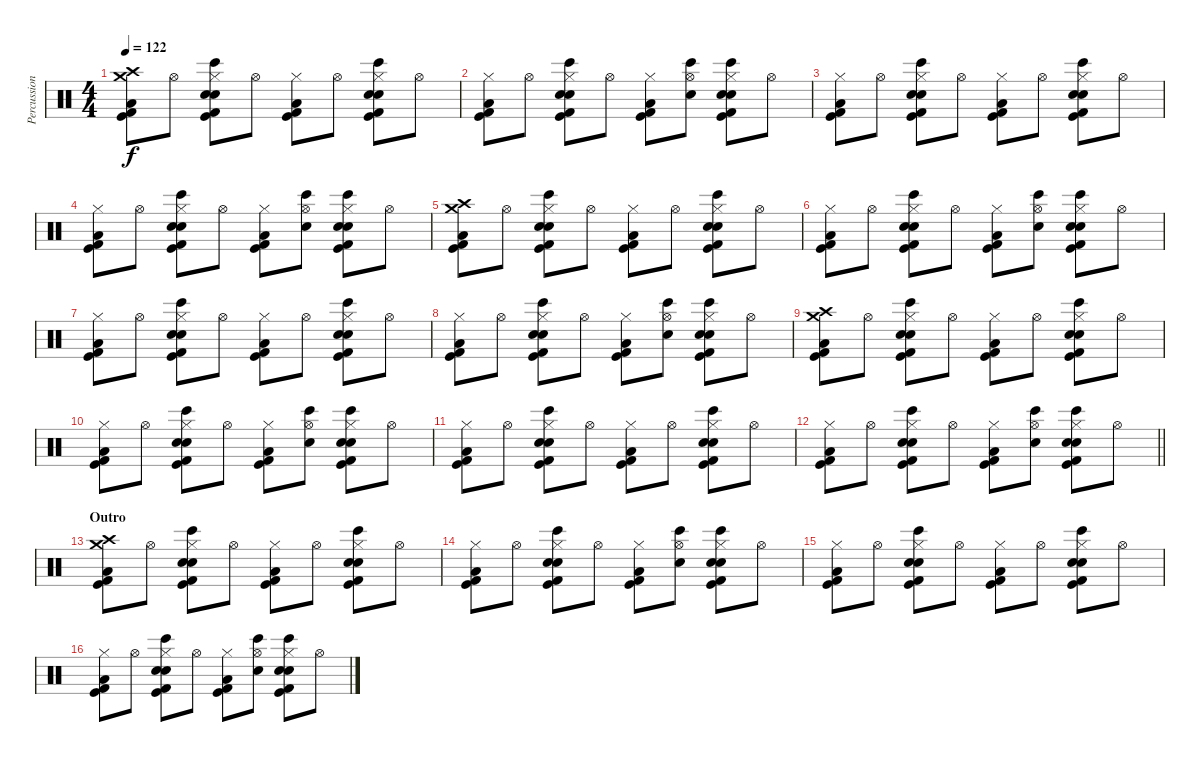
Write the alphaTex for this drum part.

\track ("Percussion" "Percussion") {instrument percussion}
\staff {score}
\articulation defaults
\ts (4 4)
\tempo 122
\clef neutral
\ks c
("Crash medium (hit)" "Crash high (hit)" "Low Floor Tom (hit)" "Kick (hit)" "Kick (hit) 2").8{dy f} "Hi-Hat (open)".8 ("Hand Clap (hit)" "Bongo High (hit)" "Hi-Hat (closed)" "Electric Snare (hit)" "Kick (hit)" "Kick (hit) 2").8 "Hi-Hat (open)".8 ("Hi-Hat (closed)" "Low Floor Tom (hit)" "Kick (hit)" "Kick (hit) 2").8 "Hi-Hat (open)".8 ("Hand Clap (hit)" "Bongo High (hit)" "Hi-Hat (closed)" "Electric Snare (hit)" "Kick (hit)" "Kick (hit) 2").8 "Hi-Hat (open)".8 |
("Hi-Hat (closed)" "Low Floor Tom (hit)" "Kick (hit)" "Kick (hit) 2").8 "Hi-Hat (open)".8 ("Hand Clap (hit)" "Bongo High (hit)" "Hi-Hat (closed)" "Electric Snare (hit)" "Kick (hit)" "Kick (hit) 2").8 "Hi-Hat (open)".8 ("Hi-Hat (closed)" "Low Floor Tom (hit)" "Kick (hit)" "Kick (hit) 2").8 ("Hand Clap (hit)" "Bongo High (hit)" "Hi-Hat (open)").8 ("Hand Clap (hit)" "Bongo High (hit)" "Hi-Hat (closed)" "Electric Snare (hit)" "Kick (hit)" "Kick (hit) 2").8 "Hi-Hat (open)".8 |
("Hi-Hat (closed)" "Low Floor Tom (hit)" "Kick (hit)" "Kick (hit) 2").8 "Hi-Hat (open)".8 ("Hand Clap (hit)" "Bongo High (hit)" "Hi-Hat (closed)" "Electric Snare (hit)" "Kick (hit)" "Kick (hit) 2").8 "Hi-Hat (open)".8 ("Hi-Hat (closed)" "Low Floor Tom (hit)" "Kick (hit)" "Kick (hit) 2").8 "Hi-Hat (open)".8 ("Hand Clap (hit)" "Bongo High (hit)" "Hi-Hat (closed)" "Electric Snare (hit)" "Kick (hit)" "Kick (hit) 2").8 "Hi-Hat (open)".8 |
("Hi-Hat (closed)" "Low Floor Tom (hit)" "Kick (hit)" "Kick (hit) 2").8 "Hi-Hat (open)".8 ("Hand Clap (hit)" "Bongo High (hit)" "Hi-Hat (closed)" "Electric Snare (hit)" "Kick (hit)" "Kick (hit) 2").8 "Hi-Hat (open)".8 ("Hi-Hat (closed)" "Low Floor Tom (hit)" "Kick (hit)" "Kick (hit) 2").8 ("Hand Clap (hit)" "Bongo High (hit)" "Hi-Hat (open)").8 ("Hand Clap (hit)" "Bongo High (hit)" "Hi-Hat (closed)" "Electric Snare (hit)" "Kick (hit)" "Kick (hit) 2").8 "Hi-Hat (open)".8 |
("Crash medium (hit)" "Crash high (hit)" "Low Floor Tom (hit)" "Kick (hit)" "Kick (hit) 2").8 "Hi-Hat (open)".8 ("Hand Clap (hit)" "Bongo High (hit)" "Hi-Hat (closed)" "Electric Snare (hit)" "Kick (hit)" "Kick (hit) 2").8 "Hi-Hat (open)".8 ("Hi-Hat (closed)" "Low Floor Tom (hit)" "Kick (hit)" "Kick (hit) 2").8 "Hi-Hat (open)".8 ("Hand Clap (hit)" "Bongo High (hit)" "Hi-Hat (closed)" "Electric Snare (hit)" "Kick (hit)" "Kick (hit) 2").8 "Hi-Hat (open)".8 |
("Hi-Hat (closed)" "Low Floor Tom (hit)" "Kick (hit)" "Kick (hit) 2").8 "Hi-Hat (open)".8 ("Hand Clap (hit)" "Bongo High (hit)" "Hi-Hat (closed)" "Electric Snare (hit)" "Kick (hit)" "Kick (hit) 2").8 "Hi-Hat (open)".8 ("Hi-Hat (closed)" "Low Floor Tom (hit)" "Kick (hit)" "Kick (hit) 2").8 ("Hand Clap (hit)" "Bongo High (hit)" "Hi-Hat (open)").8 ("Hand Clap (hit)" "Bongo High (hit)" "Hi-Hat (closed)" "Electric Snare (hit)" "Kick (hit)" "Kick (hit) 2").8 "Hi-Hat (open)".8 |
("Hi-Hat (closed)" "Low Floor Tom (hit)" "Kick (hit)" "Kick (hit) 2").8 "Hi-Hat (open)".8 ("Hand Clap (hit)" "Bongo High (hit)" "Hi-Hat (closed)" "Electric Snare (hit)" "Kick (hit)" "Kick (hit) 2").8 "Hi-Hat (open)".8 ("Hi-Hat (closed)" "Low Floor Tom (hit)" "Kick (hit)" "Kick (hit) 2").8 "Hi-Hat (open)".8 ("Hand Clap (hit)" "Bongo High (hit)" "Hi-Hat (closed)" "Electric Snare (hit)" "Kick (hit)" "Kick (hit) 2").8 "Hi-Hat (open)".8 |
("Hi-Hat (closed)" "Low Floor Tom (hit)" "Kick (hit)" "Kick (hit) 2").8 "Hi-Hat (open)".8 ("Hand Clap (hit)" "Bongo High (hit)" "Hi-Hat (closed)" "Electric Snare (hit)" "Kick (hit)" "Kick (hit) 2").8 "Hi-Hat (open)".8 ("Hi-Hat (closed)" "Low Floor Tom (hit)" "Kick (hit)" "Kick (hit) 2").8 ("Hand Clap (hit)" "Bongo High (hit)" "Hi-Hat (open)").8 ("Hand Clap (hit)" "Bongo High (hit)" "Hi-Hat (closed)" "Electric Snare (hit)" "Kick (hit)" "Kick (hit) 2").8 "Hi-Hat (open)".8 |
("Crash medium (hit)" "Crash high (hit)" "Low Floor Tom (hit)" "Kick (hit)" "Kick (hit) 2").8 "Hi-Hat (open)".8 ("Hand Clap (hit)" "Bongo High (hit)" "Hi-Hat (closed)" "Electric Snare (hit)" "Kick (hit)" "Kick (hit) 2").8 "Hi-Hat (open)".8 ("Hi-Hat (closed)" "Low Floor Tom (hit)" "Kick (hit)" "Kick (hit) 2").8 "Hi-Hat (open)".8 ("Hand Clap (hit)" "Bongo High (hit)" "Hi-Hat (closed)" "Electric Snare (hit)" "Kick (hit)" "Kick (hit) 2").8 "Hi-Hat (open)".8 |
("Hi-Hat (closed)" "Low Floor Tom (hit)" "Kick (hit)" "Kick (hit) 2").8 "Hi-Hat (open)".8 ("Hand Clap (hit)" "Bongo High (hit)" "Hi-Hat (closed)" "Electric Snare (hit)" "Kick (hit)" "Kick (hit) 2").8 "Hi-Hat (open)".8 ("Hi-Hat (closed)" "Low Floor Tom (hit)" "Kick (hit)" "Kick (hit) 2").8 ("Hand Clap (hit)" "Bongo High (hit)" "Hi-Hat (open)").8 ("Hand Clap (hit)" "Bongo High (hit)" "Hi-Hat (closed)" "Electric Snare (hit)" "Kick (hit)" "Kick (hit) 2").8 "Hi-Hat (open)".8 |
("Hi-Hat (closed)" "Low Floor Tom (hit)" "Kick (hit)" "Kick (hit) 2").8 "Hi-Hat (open)".8 ("Hand Clap (hit)" "Bongo High (hit)" "Hi-Hat (closed)" "Electric Snare (hit)" "Kick (hit)" "Kick (hit) 2").8 "Hi-Hat (open)".8 ("Hi-Hat (closed)" "Low Floor Tom (hit)" "Kick (hit)" "Kick (hit) 2").8 "Hi-Hat (open)".8 ("Hand Clap (hit)" "Bongo High (hit)" "Hi-Hat (closed)" "Electric Snare (hit)" "Kick (hit)" "Kick (hit) 2").8 "Hi-Hat (open)".8 |
\barLineRight lightlight
("Hi-Hat (closed)" "Low Floor Tom (hit)" "Kick (hit)" "Kick (hit) 2").8 "Hi-Hat (open)".8 ("Hand Clap (hit)" "Bongo High (hit)" "Hi-Hat (closed)" "Electric Snare (hit)" "Kick (hit)" "Kick (hit) 2").8 "Hi-Hat (open)".8 ("Hi-Hat (closed)" "Low Floor Tom (hit)" "Kick (hit)" "Kick (hit) 2").8 ("Hand Clap (hit)" "Bongo High (hit)" "Hi-Hat (open)").8 ("Hand Clap (hit)" "Bongo High (hit)" "Hi-Hat (closed)" "Electric Snare (hit)" "Kick (hit)" "Kick (hit) 2").8 "Hi-Hat (open)".8 |
\section ("" "Outro")
("Crash medium (hit)" "Crash high (hit)" "Low Floor Tom (hit)" "Kick (hit)" "Kick (hit) 2").8 "Hi-Hat (open)".8 ("Hand Clap (hit)" "Bongo High (hit)" "Hi-Hat (closed)" "Electric Snare (hit)" "Kick (hit)" "Kick (hit) 2").8 "Hi-Hat (open)".8 ("Hi-Hat (closed)" "Low Floor Tom (hit)" "Kick (hit)" "Kick (hit) 2").8 "Hi-Hat (open)".8 ("Hand Clap (hit)" "Bongo High (hit)" "Hi-Hat (closed)" "Electric Snare (hit)" "Kick (hit)" "Kick (hit) 2").8 "Hi-Hat (open)".8 |
("Hi-Hat (closed)" "Low Floor Tom (hit)" "Kick (hit)" "Kick (hit) 2").8 "Hi-Hat (open)".8 ("Hand Clap (hit)" "Bongo High (hit)" "Hi-Hat (closed)" "Electric Snare (hit)" "Kick (hit)" "Kick (hit) 2").8 "Hi-Hat (open)".8 ("Hi-Hat (closed)" "Low Floor Tom (hit)" "Kick (hit)" "Kick (hit) 2").8 ("Hand Clap (hit)" "Bongo High (hit)" "Hi-Hat (open)").8 ("Hand Clap (hit)" "Bongo High (hit)" "Hi-Hat (closed)" "Electric Snare (hit)" "Kick (hit)" "Kick (hit) 2").8 "Hi-Hat (open)".8 |
("Hi-Hat (closed)" "Low Floor Tom (hit)" "Kick (hit)" "Kick (hit) 2").8 "Hi-Hat (open)".8 ("Hand Clap (hit)" "Bongo High (hit)" "Hi-Hat (closed)" "Electric Snare (hit)" "Kick (hit)" "Kick (hit) 2").8 "Hi-Hat (open)".8 ("Hi-Hat (closed)" "Low Floor Tom (hit)" "Kick (hit)" "Kick (hit) 2").8 "Hi-Hat (open)".8 ("Hand Clap (hit)" "Bongo High (hit)" "Hi-Hat (closed)" "Electric Snare (hit)" "Kick (hit)" "Kick (hit) 2").8 "Hi-Hat (open)".8 |
("Hi-Hat (closed)" "Low Floor Tom (hit)" "Kick (hit)" "Kick (hit) 2").8 "Hi-Hat (open)".8 ("Hand Clap (hit)" "Bongo High (hit)" "Hi-Hat (closed)" "Electric Snare (hit)" "Kick (hit)" "Kick (hit) 2").8 "Hi-Hat (open)".8 ("Hi-Hat (closed)" "Low Floor Tom (hit)" "Kick (hit)" "Kick (hit) 2").8 ("Hand Clap (hit)" "Bongo High (hit)" "Hi-Hat (open)").8 ("Hand Clap (hit)" "Bongo High (hit)" "Hi-Hat (closed)" "Electric Snare (hit)" "Kick (hit)" "Kick (hit) 2").8 "Hi-Hat (open)".8
